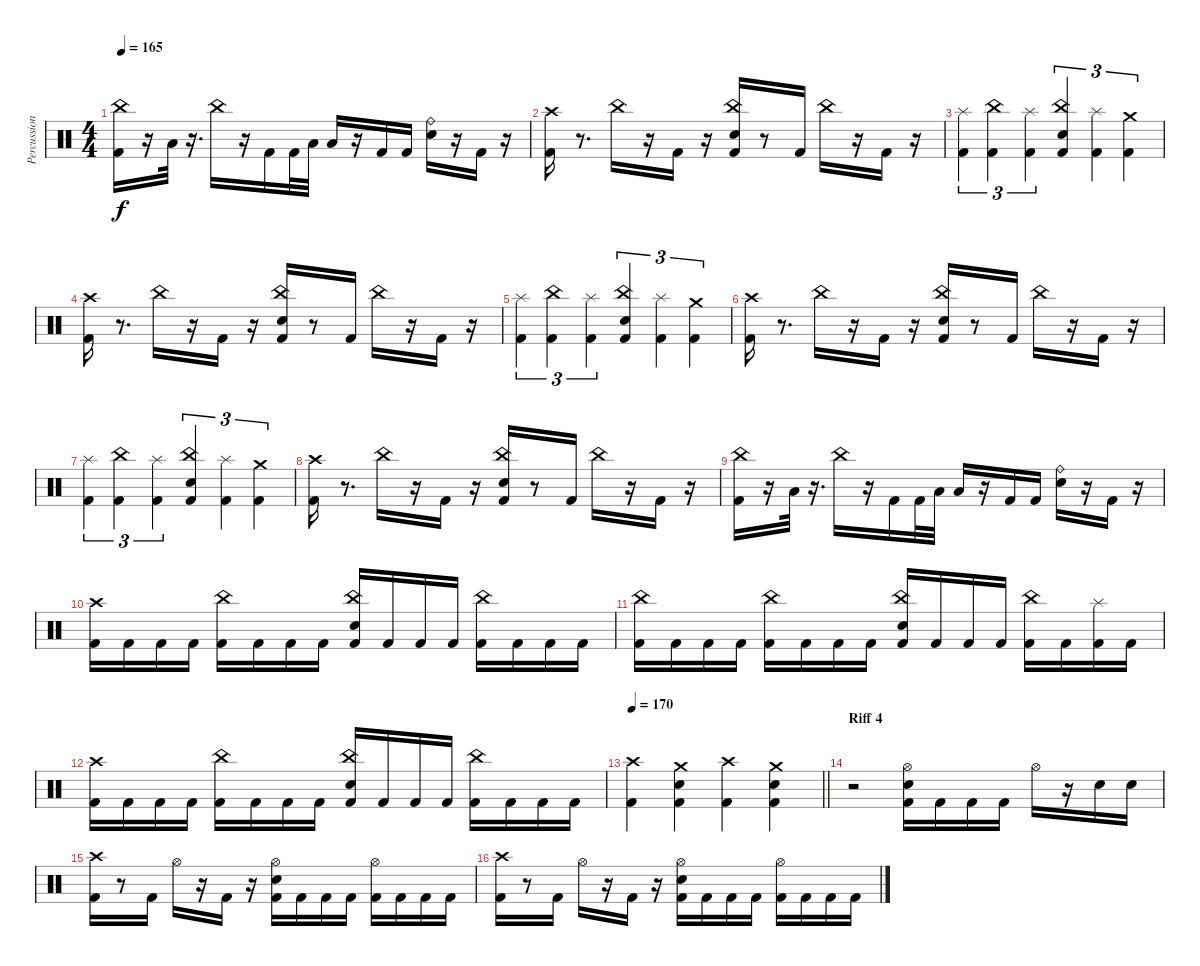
\track ("Percussion" "Percussion") {instrument percussion}
\staff {score}
\articulation defaults
\ts (4 4)
\tempo 165
\clef neutral
\ks c
("Kick (hit) 2" "China (hit)").16{dy f} r.16 "Low Tom (hit)".32 r.16{d} "China (hit)".16 r.16 "Kick (hit) 2".16 "Kick (hit) 2".32 "Low Tom (hit)".32 "Low Tom (hit)".16 r.16 "Kick (hit) 2".16 "Kick (hit) 2".16 ("Snare (hit) 2" "Ride (bell)").16 r.16 "Kick (hit) 2".16 r.16 |
("Kick (hit) 2" "Crash high (hit)").16 r.8{d} "China (hit)".16 r.16 "Kick (hit) 2".16 r.16 ("Kick (hit) 2" "Snare (hit) 2" "China (hit)").16 r.8 "Kick (hit) 2".16 "China (hit)".16 r.16 "Kick (hit) 2".16 r.16 |
("Kick (hit) 2" "Splash (hit)").4{tu (3 2)} ("Kick (hit) 2" "China (hit)").4{tu (3 2)} ("Kick (hit) 2" "Splash (hit)").4{tu (3 2)} ("Kick (hit) 2" "Snare (hit) 2" "China (hit)").4{tu (3 2)} ("Kick (hit) 2" "Splash (hit)").4{tu (3 2)} ("Kick (hit) 2" "Crash medium (hit)").4{tu (3 2)} |
("Kick (hit) 2" "Crash high (hit)").16 r.8{d} "China (hit)".16 r.16 "Kick (hit) 2".16 r.16 ("Kick (hit) 2" "Snare (hit) 2" "China (hit)").16 r.8 "Kick (hit) 2".16 "China (hit)".16 r.16 "Kick (hit) 2".16 r.16 |
("Kick (hit) 2" "Splash (hit)").4{tu (3 2)} ("Kick (hit) 2" "China (hit)").4{tu (3 2)} ("Kick (hit) 2" "Splash (hit)").4{tu (3 2)} ("Kick (hit) 2" "Snare (hit) 2" "China (hit)").4{tu (3 2)} ("Kick (hit) 2" "Splash (hit)").4{tu (3 2)} ("Kick (hit) 2" "Crash medium (hit)").4{tu (3 2)} |
("Kick (hit) 2" "Crash high (hit)").16 r.8{d} "China (hit)".16 r.16 "Kick (hit) 2".16 r.16 ("Kick (hit) 2" "Snare (hit) 2" "China (hit)").16 r.8 "Kick (hit) 2".16 "China (hit)".16 r.16 "Kick (hit) 2".16 r.16 |
("Kick (hit) 2" "Splash (hit)").4{tu (3 2)} ("Kick (hit) 2" "China (hit)").4{tu (3 2)} ("Kick (hit) 2" "Splash (hit)").4{tu (3 2)} ("Kick (hit) 2" "Snare (hit) 2" "China (hit)").4{tu (3 2)} ("Kick (hit) 2" "Splash (hit)").4{tu (3 2)} ("Kick (hit) 2" "Crash medium (hit)").4{tu (3 2)} |
("Kick (hit) 2" "Crash high (hit)").16 r.8{d} "China (hit)".16 r.16 "Kick (hit) 2".16 r.16 ("Kick (hit) 2" "Snare (hit) 2" "China (hit)").16 r.8 "Kick (hit) 2".16 "China (hit)".16 r.16 "Kick (hit) 2".16 r.16 |
("Kick (hit) 2" "China (hit)").16 r.16 "Low Tom (hit)".32 r.16{d} "China (hit)".16 r.16 "Kick (hit) 2".16 "Kick (hit) 2".32 "Low Tom (hit)".32 "Low Tom (hit)".16 r.16 "Kick (hit) 2".16 "Kick (hit) 2".16 ("Snare (hit) 2" "Ride (bell)").16 r.16 "Kick (hit) 2".16 r.16 |
("Kick (hit) 2" "Crash high (hit)").16 "Kick (hit) 2".16 "Kick (hit) 2".16 "Kick (hit) 2".16 ("Kick (hit) 2" "China (hit)").16 "Kick (hit) 2".16 "Kick (hit) 2".16 "Kick (hit) 2".16 ("Kick (hit) 2" "Snare (hit) 2" "China (hit)").16 "Kick (hit) 2".16 "Kick (hit) 2".16 "Kick (hit) 2".16 ("Kick (hit) 2" "China (hit)").16 "Kick (hit) 2".16 "Kick (hit) 2".16 "Kick (hit) 2".16 |
("Kick (hit) 2" "China (hit)").16 "Kick (hit) 2".16 "Kick (hit) 2".16 "Kick (hit) 2".16 ("Kick (hit) 2" "China (hit)").16 "Kick (hit) 2".16 "Kick (hit) 2".16 "Kick (hit) 2".16 ("Kick (hit) 2" "Snare (hit) 2" "China (hit)").16 "Kick (hit) 2".16 "Kick (hit) 2".16 "Kick (hit) 2".16 ("Kick (hit) 2" "China (hit)").16 "Kick (hit) 2".16 ("Kick (hit) 2" "Splash (hit)").16 "Kick (hit) 2".16 |
("Kick (hit) 2" "Crash high (hit)").16 "Kick (hit) 2".16 "Kick (hit) 2".16 "Kick (hit) 2".16 ("Kick (hit) 2" "China (hit)").16 "Kick (hit) 2".16 "Kick (hit) 2".16 "Kick (hit) 2".16 ("Kick (hit) 2" "Snare (hit) 2" "China (hit)").16 "Kick (hit) 2".16 "Kick (hit) 2".16 "Kick (hit) 2".16 ("Kick (hit) 2" "China (hit)").16 "Kick (hit) 2".16 "Kick (hit) 2".16 "Kick (hit) 2".16 |
\tempo 170
\barLineRight lightlight
("Kick (hit) 2" "Crash high (hit)").4 ("Kick (hit) 2" "Snare (hit) 2" "Crash medium (hit)").4 ("Kick (hit) 2" "Crash high (hit)").4 ("Kick (hit) 2" "Snare (hit) 2" "Crash medium (hit)").4 |
\section ("" "Riff 4")
r.2 ("Kick (hit) 2" "Snare (hit) 2" "Hi-Hat (open)").16 "Kick (hit) 2".16 "Kick (hit) 2".16 "Kick (hit) 2".16 "Hi-Hat (open)".16 r.16 "Snare (hit) 2".16 "Snare (hit) 2".16 |
("Kick (hit) 2" "Crash high (hit)").16 r.8 "Kick (hit) 2".16 "Hi-Hat (open)".16 r.16 "Kick (hit) 2".16 r.16 ("Kick (hit) 2" "Snare (hit) 2" "Hi-Hat (open)").16 "Kick (hit) 2".16 "Kick (hit) 2".16 "Kick (hit) 2".16 ("Kick (hit) 2" "Hi-Hat (open)").16 "Kick (hit) 2".16 "Kick (hit) 2".16 "Kick (hit) 2".16 |
("Kick (hit) 2" "Crash high (hit)").16 r.8 "Kick (hit) 2".16 "Hi-Hat (open)".16 r.16 "Kick (hit) 2".16 r.16 ("Kick (hit) 2" "Snare (hit) 2" "Hi-Hat (open)").16 "Kick (hit) 2".16 "Kick (hit) 2".16 "Kick (hit) 2".16 ("Kick (hit) 2" "Hi-Hat (open)").16 "Kick (hit) 2".16 "Kick (hit) 2".16 "Kick (hit) 2".16
